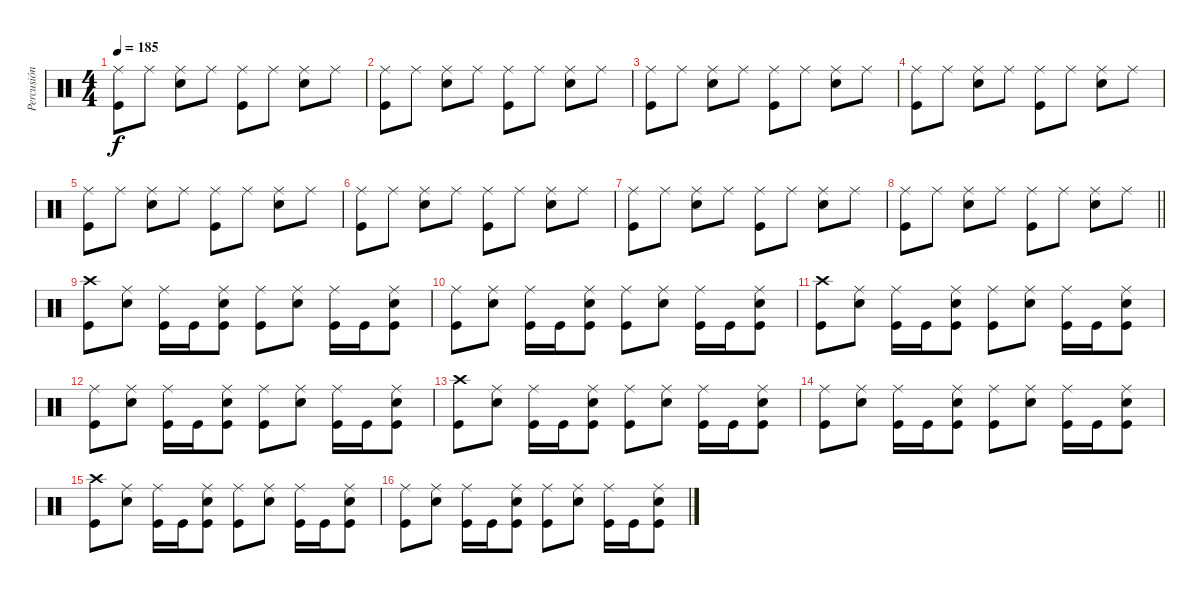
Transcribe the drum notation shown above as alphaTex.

\track ("Percusión" "Percusión") {instrument percussion}
\staff {score}
\articulation defaults
\ts (4 4)
\tempo 185
\clef neutral
\ks c
("Kick (hit)" "Ride (middle)").8{dy f} "Ride (middle)".8 ("Ride (middle)" "Snare (hit) 2").8 "Ride (middle)".8 ("Ride (middle)" "Kick (hit)").8 "Ride (middle)".8 ("Ride (middle)" "Snare (hit) 2").8 "Ride (middle)".8 |
("Ride (middle)" "Kick (hit)").8 "Ride (middle)".8 ("Ride (middle)" "Snare (hit) 2").8 "Ride (middle)".8 ("Ride (middle)" "Kick (hit)").8 "Ride (middle)".8 ("Ride (middle)" "Snare (hit) 2").8 "Ride (middle)".8 |
("Kick (hit)" "Ride (middle)").8 "Ride (middle)".8 ("Ride (middle)" "Snare (hit) 2").8 "Ride (middle)".8 ("Ride (middle)" "Kick (hit)").8 "Ride (middle)".8 ("Ride (middle)" "Snare (hit) 2").8 "Ride (middle)".8 |
("Ride (middle)" "Kick (hit)").8 "Ride (middle)".8 ("Ride (middle)" "Snare (hit) 2").8 "Ride (middle)".8 ("Ride (middle)" "Kick (hit)").8 "Ride (middle)".8 ("Ride (middle)" "Snare (hit) 2").8 "Ride (middle)".8 |
("Kick (hit)" "Ride (middle)").8 "Ride (middle)".8 ("Ride (middle)" "Snare (hit) 2").8 "Ride (middle)".8 ("Ride (middle)" "Kick (hit)").8 "Ride (middle)".8 ("Ride (middle)" "Snare (hit) 2").8 "Ride (middle)".8 |
("Ride (middle)" "Kick (hit)").8 "Ride (middle)".8 ("Ride (middle)" "Snare (hit) 2").8 "Ride (middle)".8 ("Ride (middle)" "Kick (hit)").8 "Ride (middle)".8 ("Ride (middle)" "Snare (hit) 2").8 "Ride (middle)".8 |
("Kick (hit)" "Ride (middle)").8 "Ride (middle)".8 ("Ride (middle)" "Snare (hit) 2").8 "Ride (middle)".8 ("Ride (middle)" "Kick (hit)").8 "Ride (middle)".8 ("Ride (middle)" "Snare (hit) 2").8 "Ride (middle)".8 |
\barLineRight lightlight
("Ride (middle)" "Kick (hit)").8 "Ride (middle)".8 ("Ride (middle)" "Snare (hit) 2").8 "Ride (middle)".8 ("Ride (middle)" "Kick (hit)").8 "Ride (middle)".8 ("Ride (middle)" "Snare (hit) 2").8 "Ride (middle)".8 |
("Kick (hit)" "Crash high (hit)").8 ("Snare (hit) 2" "Ride (middle)").8 ("Kick (hit)" "Ride (middle)").16 "Kick (hit)".16 ("Kick (hit)" "Ride (middle)" "Snare (hit) 2").8 ("Kick (hit)" "Ride (middle)").8 ("Snare (hit) 2" "Ride (middle)").8 ("Kick (hit)" "Ride (middle)").16 "Kick (hit)".16 ("Kick (hit)" "Ride (middle)" "Snare (hit) 2").8 |
("Kick (hit)" "Ride (middle)").8 ("Snare (hit) 2" "Ride (middle)").8 ("Kick (hit)" "Ride (middle)").16 "Kick (hit)".16 ("Kick (hit)" "Ride (middle)" "Snare (hit) 2").8 ("Kick (hit)" "Ride (middle)").8 ("Snare (hit) 2" "Ride (middle)").8 ("Kick (hit)" "Ride (middle)").16 "Kick (hit)".16 ("Kick (hit)" "Ride (middle)" "Snare (hit) 2").8 |
("Kick (hit)" "Crash high (hit)").8 ("Snare (hit) 2" "Ride (middle)").8 ("Kick (hit)" "Ride (middle)").16 "Kick (hit)".16 ("Kick (hit)" "Ride (middle)" "Snare (hit) 2").8 ("Kick (hit)" "Ride (middle)").8 ("Snare (hit) 2" "Ride (middle)").8 ("Kick (hit)" "Ride (middle)").16 "Kick (hit)".16 ("Kick (hit)" "Ride (middle)" "Snare (hit) 2").8 |
("Kick (hit)" "Ride (middle)").8 ("Snare (hit) 2" "Ride (middle)").8 ("Kick (hit)" "Ride (middle)").16 "Kick (hit)".16 ("Kick (hit)" "Ride (middle)" "Snare (hit) 2").8 ("Kick (hit)" "Ride (middle)").8 ("Snare (hit) 2" "Ride (middle)").8 ("Kick (hit)" "Ride (middle)").16 "Kick (hit)".16 ("Kick (hit)" "Ride (middle)" "Snare (hit) 2").8 |
("Kick (hit)" "Crash high (hit)").8 ("Snare (hit) 2" "Ride (middle)").8 ("Kick (hit)" "Ride (middle)").16 "Kick (hit)".16 ("Kick (hit)" "Ride (middle)" "Snare (hit) 2").8 ("Kick (hit)" "Ride (middle)").8 ("Snare (hit) 2" "Ride (middle)").8 ("Kick (hit)" "Ride (middle)").16 "Kick (hit)".16 ("Kick (hit)" "Ride (middle)" "Snare (hit) 2").8 |
("Kick (hit)" "Ride (middle)").8 ("Snare (hit) 2" "Ride (middle)").8 ("Kick (hit)" "Ride (middle)").16 "Kick (hit)".16 ("Kick (hit)" "Ride (middle)" "Snare (hit) 2").8 ("Kick (hit)" "Ride (middle)").8 ("Snare (hit) 2" "Ride (middle)").8 ("Kick (hit)" "Ride (middle)").16 "Kick (hit)".16 ("Kick (hit)" "Ride (middle)" "Snare (hit) 2").8 |
("Kick (hit)" "Crash high (hit)").8 ("Snare (hit) 2" "Ride (middle)").8 ("Kick (hit)" "Ride (middle)").16 "Kick (hit)".16 ("Kick (hit)" "Ride (middle)" "Snare (hit) 2").8 ("Kick (hit)" "Ride (middle)").8 ("Snare (hit) 2" "Ride (middle)").8 ("Kick (hit)" "Ride (middle)").16 "Kick (hit)".16 ("Kick (hit)" "Ride (middle)" "Snare (hit) 2").8 |
("Kick (hit)" "Ride (middle)").8 ("Snare (hit) 2" "Ride (middle)").8 ("Kick (hit)" "Ride (middle)").16 "Kick (hit)".16 ("Kick (hit)" "Ride (middle)" "Snare (hit) 2").8 ("Kick (hit)" "Ride (middle)").8 ("Snare (hit) 2" "Ride (middle)").8 ("Kick (hit)" "Ride (middle)").16 "Kick (hit)".16 ("Kick (hit)" "Ride (middle)" "Snare (hit) 2").8
